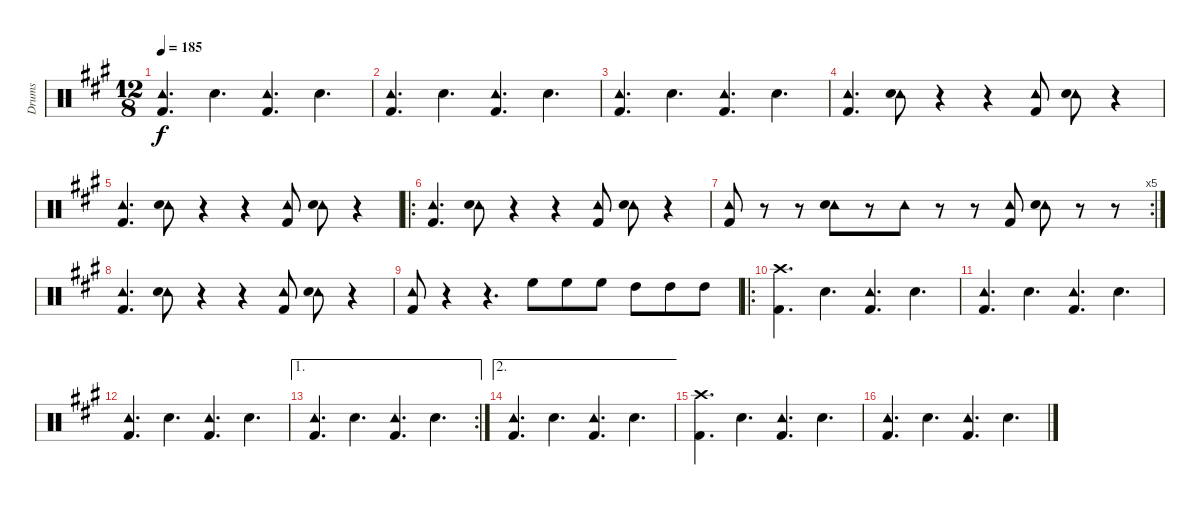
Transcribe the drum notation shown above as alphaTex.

\track ("Drums" "Drums") {instrument percussion}
\staff {score}
\articulation defaults
\ts (12 8)
\tempo 185
\clef neutral
\ks a
("Tambourine (hit)" "Kick (hit) 2").4{d dy f} "Snare (hit) 2".4{d} ("Tambourine (hit)" "Kick (hit) 2").4{d} "Snare (hit) 2".4{d} |
("Tambourine (hit)" "Kick (hit) 2").4{d} "Snare (hit) 2".4{d} ("Tambourine (hit)" "Kick (hit) 2").4{d} "Snare (hit) 2".4{d} |
("Tambourine (hit)" "Kick (hit) 2").4{d} "Snare (hit) 2".4{d} ("Tambourine (hit)" "Kick (hit) 2").4{d} "Snare (hit) 2".4{d} |
("Tambourine (hit)" "Kick (hit) 2").4{d} ("Tambourine (hit)" "Snare (hit) 2").8 r.4 r.4 ("Tambourine (hit)" "Kick (hit) 2").8 ("Tambourine (hit)" "Snare (hit) 2").8 r.4 |
("Tambourine (hit)" "Kick (hit) 2").4{d} ("Tambourine (hit)" "Snare (hit) 2").8 r.4 r.4 ("Tambourine (hit)" "Kick (hit) 2").8 ("Tambourine (hit)" "Snare (hit) 2").8 r.4 |
\ro
("Tambourine (hit)" "Kick (hit) 2").4{d} ("Tambourine (hit)" "Snare (hit) 2").8 r.4 r.4 ("Tambourine (hit)" "Kick (hit) 2").8 ("Tambourine (hit)" "Snare (hit) 2").8 r.4 |
\rc 5
("Tambourine (hit)" "Kick (hit) 2").8 r.8 r.8 ("Tambourine (hit)" "Snare (hit) 2").8 r.8 "Tambourine (hit)".8 r.8 r.8 ("Tambourine (hit)" "Kick (hit) 2").8 ("Tambourine (hit)" "Snare (hit) 2").8 r.8 r.8 |
("Tambourine (hit)" "Kick (hit) 2").4{d} ("Tambourine (hit)" "Snare (hit) 2").8 r.4 r.4 ("Tambourine (hit)" "Kick (hit) 2").8 ("Tambourine (hit)" "Snare (hit) 2").8 r.4 |
("Tambourine (hit)" "Kick (hit) 2").8 r.4 r.4{d} "High Floor Tom (hit)".8 "High Floor Tom (hit)".8 "High Floor Tom (hit)".8 "High Tom (hit)".8 "High Tom (hit)".8 "High Tom (hit)".8 |
\ro
("Crash high (hit)" "Kick (hit) 2").4{d} "Snare (hit) 2".4{d} ("Tambourine (hit)" "Kick (hit) 2").4{d} "Snare (hit) 2".4{d} |
("Tambourine (hit)" "Kick (hit) 2").4{d} "Snare (hit) 2".4{d} ("Tambourine (hit)" "Kick (hit) 2").4{d} "Snare (hit) 2".4{d} |
("Tambourine (hit)" "Kick (hit) 2").4{d} "Snare (hit) 2".4{d} ("Tambourine (hit)" "Kick (hit) 2").4{d} "Snare (hit) 2".4{d} |
\ae 1
\rc 2
("Tambourine (hit)" "Kick (hit) 2").4{d} "Snare (hit) 2".4{d} ("Tambourine (hit)" "Kick (hit) 2").4{d} "Snare (hit) 2".4{d} |
\ae 2
("Tambourine (hit)" "Kick (hit) 2").4{d} "Snare (hit) 2".4{d} ("Tambourine (hit)" "Kick (hit) 2").4{d} "Snare (hit) 2".4{d} |
("Crash high (hit)" "Kick (hit) 2").4{d} "Snare (hit) 2".4{d} ("Tambourine (hit)" "Kick (hit) 2").4{d} "Snare (hit) 2".4{d} |
("Tambourine (hit)" "Kick (hit) 2").4{d} "Snare (hit) 2".4{d} ("Tambourine (hit)" "Kick (hit) 2").4{d} "Snare (hit) 2".4{d}
